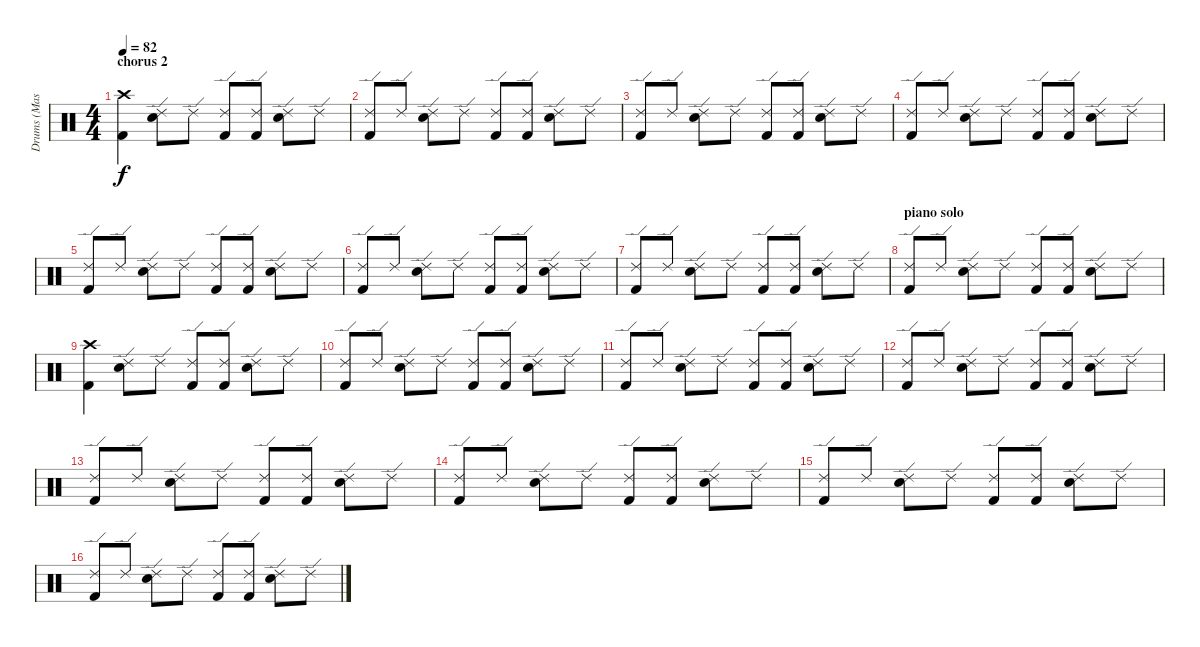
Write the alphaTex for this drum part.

\track ("Drums (Mason)" "Drums (Mas") {instrument percussion}
\staff {score}
\articulation defaults
\ts (4 4)
\section ("" "chorus 2")
\tempo 82
\clef neutral
\ks c
("Crash high (hit)" "Kick (hit) 2").4{dy f} ("Ride (edge) 2" "Electric Snare (hit)").8 "Ride (edge) 2".8 ("Ride (edge) 2" "Kick (hit) 2").8 ("Ride (edge) 2" "Kick (hit) 2").8 ("Ride (edge) 2" "Electric Snare (hit)").8 "Ride (edge) 2".8 |
("Ride (edge) 2" "Kick (hit) 2").8 "Ride (edge) 2".8 ("Ride (edge) 2" "Electric Snare (hit)").8 "Ride (edge) 2".8 ("Ride (edge) 2" "Kick (hit) 2").8 ("Ride (edge) 2" "Kick (hit) 2").8 ("Ride (edge) 2" "Electric Snare (hit)").8 "Ride (edge) 2".8 |
("Ride (edge) 2" "Kick (hit) 2").8 "Ride (edge) 2".8 ("Ride (edge) 2" "Electric Snare (hit)").8 "Ride (edge) 2".8 ("Ride (edge) 2" "Kick (hit) 2").8 ("Ride (edge) 2" "Kick (hit) 2").8 ("Ride (edge) 2" "Electric Snare (hit)").8 "Ride (edge) 2".8 |
("Ride (edge) 2" "Kick (hit) 2").8 "Ride (edge) 2".8 ("Ride (edge) 2" "Electric Snare (hit)").8 "Ride (edge) 2".8 ("Ride (edge) 2" "Kick (hit) 2").8 ("Ride (edge) 2" "Kick (hit) 2").8 ("Ride (edge) 2" "Electric Snare (hit)").8 "Ride (edge) 2".8 |
("Ride (edge) 2" "Kick (hit) 2").8 "Ride (edge) 2".8 ("Ride (edge) 2" "Electric Snare (hit)").8 "Ride (edge) 2".8 ("Ride (edge) 2" "Kick (hit) 2").8 ("Ride (edge) 2" "Kick (hit) 2").8 ("Ride (edge) 2" "Electric Snare (hit)").8 "Ride (edge) 2".8 |
("Ride (edge) 2" "Kick (hit) 2").8 "Ride (edge) 2".8 ("Ride (edge) 2" "Electric Snare (hit)").8 "Ride (edge) 2".8 ("Ride (edge) 2" "Kick (hit) 2").8 ("Ride (edge) 2" "Kick (hit) 2").8 ("Ride (edge) 2" "Electric Snare (hit)").8 "Ride (edge) 2".8 |
("Ride (edge) 2" "Kick (hit) 2").8 "Ride (edge) 2".8 ("Ride (edge) 2" "Electric Snare (hit)").8 "Ride (edge) 2".8 ("Ride (edge) 2" "Kick (hit) 2").8 ("Ride (edge) 2" "Kick (hit) 2").8 ("Ride (edge) 2" "Electric Snare (hit)").8 "Ride (edge) 2".8 |
\section ("" "piano solo")
("Ride (edge) 2" "Kick (hit) 2").8 "Ride (edge) 2".8 ("Ride (edge) 2" "Electric Snare (hit)").8 "Ride (edge) 2".8 ("Ride (edge) 2" "Kick (hit) 2").8 ("Ride (edge) 2" "Kick (hit) 2").8 ("Ride (edge) 2" "Electric Snare (hit)").8 "Ride (edge) 2".8 |
("Crash high (hit)" "Kick (hit) 2").4 ("Ride (edge) 2" "Electric Snare (hit)").8 "Ride (edge) 2".8 ("Ride (edge) 2" "Kick (hit) 2").8 ("Ride (edge) 2" "Kick (hit) 2").8 ("Ride (edge) 2" "Electric Snare (hit)").8 "Ride (edge) 2".8 |
("Ride (edge) 2" "Kick (hit) 2").8 "Ride (edge) 2".8 ("Ride (edge) 2" "Electric Snare (hit)").8 "Ride (edge) 2".8 ("Ride (edge) 2" "Kick (hit) 2").8 ("Ride (edge) 2" "Kick (hit) 2").8 ("Ride (edge) 2" "Electric Snare (hit)").8 "Ride (edge) 2".8 |
("Ride (edge) 2" "Kick (hit) 2").8 "Ride (edge) 2".8 ("Ride (edge) 2" "Electric Snare (hit)").8 "Ride (edge) 2".8 ("Ride (edge) 2" "Kick (hit) 2").8 ("Ride (edge) 2" "Kick (hit) 2").8 ("Ride (edge) 2" "Electric Snare (hit)").8 "Ride (edge) 2".8 |
("Ride (edge) 2" "Kick (hit) 2").8 "Ride (edge) 2".8 ("Ride (edge) 2" "Electric Snare (hit)").8 "Ride (edge) 2".8 ("Ride (edge) 2" "Kick (hit) 2").8 ("Ride (edge) 2" "Kick (hit) 2").8 ("Ride (edge) 2" "Electric Snare (hit)").8 "Ride (edge) 2".8 |
("Ride (edge) 2" "Kick (hit) 2").8 "Ride (edge) 2".8 ("Ride (edge) 2" "Electric Snare (hit)").8 "Ride (edge) 2".8 ("Ride (edge) 2" "Kick (hit) 2").8 ("Ride (edge) 2" "Kick (hit) 2").8 ("Ride (edge) 2" "Electric Snare (hit)").8 "Ride (edge) 2".8 |
("Ride (edge) 2" "Kick (hit) 2").8 "Ride (edge) 2".8 ("Ride (edge) 2" "Electric Snare (hit)").8 "Ride (edge) 2".8 ("Ride (edge) 2" "Kick (hit) 2").8 ("Ride (edge) 2" "Kick (hit) 2").8 ("Ride (edge) 2" "Electric Snare (hit)").8 "Ride (edge) 2".8 |
("Ride (edge) 2" "Kick (hit) 2").8 "Ride (edge) 2".8 ("Ride (edge) 2" "Electric Snare (hit)").8 "Ride (edge) 2".8 ("Ride (edge) 2" "Kick (hit) 2").8 ("Ride (edge) 2" "Kick (hit) 2").8 ("Ride (edge) 2" "Electric Snare (hit)").8 "Ride (edge) 2".8 |
("Ride (edge) 2" "Kick (hit) 2").8 "Ride (edge) 2".8 ("Ride (edge) 2" "Electric Snare (hit)").8 "Ride (edge) 2".8 ("Ride (edge) 2" "Kick (hit) 2").8 ("Ride (edge) 2" "Kick (hit) 2").8 ("Ride (edge) 2" "Electric Snare (hit)").8 "Ride (edge) 2".8
